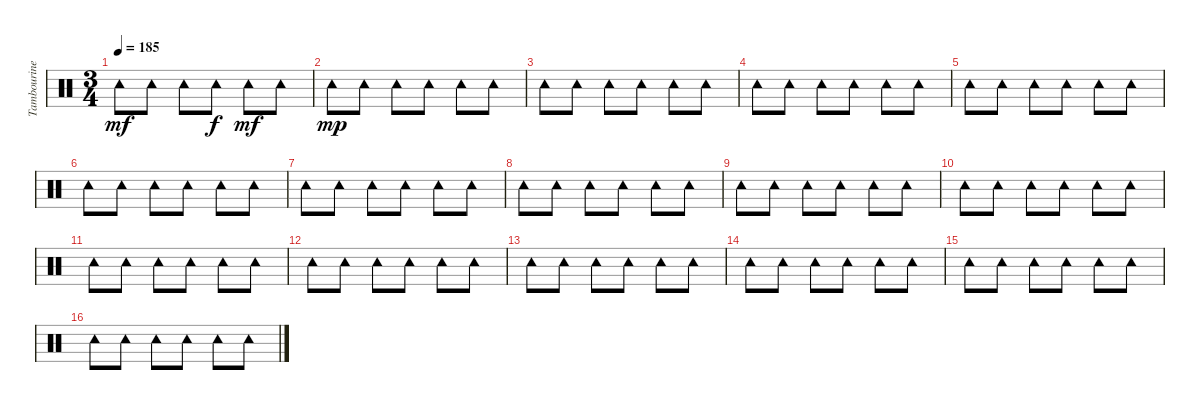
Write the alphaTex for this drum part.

\track ("Tambourine" "Tambourine") {instrument percussion}
\staff {score}
\articulation defaults
\ts (3 4)
\tempo 185
\clef neutral
\ks c "Tambourine (hit)".8{dy mf} "Tambourine (hit)".8 "Tambourine (hit)".8 "Tambourine (hit)".8{dy f} "Tambourine (hit)".8{dy mf} "Tambourine (hit)".8
|
"Tambourine (hit)".8{dy mp} "Tambourine (hit)".8 "Tambourine (hit)".8 "Tambourine (hit)".8 "Tambourine (hit)".8 "Tambourine (hit)".8 |
"Tambourine (hit)".8 "Tambourine (hit)".8 "Tambourine (hit)".8 "Tambourine (hit)".8 "Tambourine (hit)".8 "Tambourine (hit)".8 |
"Tambourine (hit)".8 "Tambourine (hit)".8 "Tambourine (hit)".8 "Tambourine (hit)".8 "Tambourine (hit)".8 "Tambourine (hit)".8 |
"Tambourine (hit)".8 "Tambourine (hit)".8 "Tambourine (hit)".8 "Tambourine (hit)".8 "Tambourine (hit)".8 "Tambourine (hit)".8 |
"Tambourine (hit)".8 "Tambourine (hit)".8 "Tambourine (hit)".8 "Tambourine (hit)".8 "Tambourine (hit)".8 "Tambourine (hit)".8 |
"Tambourine (hit)".8 "Tambourine (hit)".8 "Tambourine (hit)".8 "Tambourine (hit)".8 "Tambourine (hit)".8 "Tambourine (hit)".8 |
"Tambourine (hit)".8 "Tambourine (hit)".8 "Tambourine (hit)".8 "Tambourine (hit)".8 "Tambourine (hit)".8 "Tambourine (hit)".8 |
"Tambourine (hit)".8 "Tambourine (hit)".8 "Tambourine (hit)".8 "Tambourine (hit)".8 "Tambourine (hit)".8 "Tambourine (hit)".8 |
"Tambourine (hit)".8 "Tambourine (hit)".8 "Tambourine (hit)".8 "Tambourine (hit)".8 "Tambourine (hit)".8 "Tambourine (hit)".8 |
"Tambourine (hit)".8 "Tambourine (hit)".8 "Tambourine (hit)".8 "Tambourine (hit)".8 "Tambourine (hit)".8 "Tambourine (hit)".8 |
"Tambourine (hit)".8 "Tambourine (hit)".8 "Tambourine (hit)".8 "Tambourine (hit)".8 "Tambourine (hit)".8 "Tambourine (hit)".8 |
"Tambourine (hit)".8 "Tambourine (hit)".8 "Tambourine (hit)".8 "Tambourine (hit)".8 "Tambourine (hit)".8 "Tambourine (hit)".8 |
"Tambourine (hit)".8 "Tambourine (hit)".8 "Tambourine (hit)".8 "Tambourine (hit)".8 "Tambourine (hit)".8 "Tambourine (hit)".8 |
"Tambourine (hit)".8 "Tambourine (hit)".8 "Tambourine (hit)".8 "Tambourine (hit)".8 "Tambourine (hit)".8 "Tambourine (hit)".8 |
"Tambourine (hit)".8 "Tambourine (hit)".8 "Tambourine (hit)".8 "Tambourine (hit)".8 "Tambourine (hit)".8 "Tambourine (hit)".8
